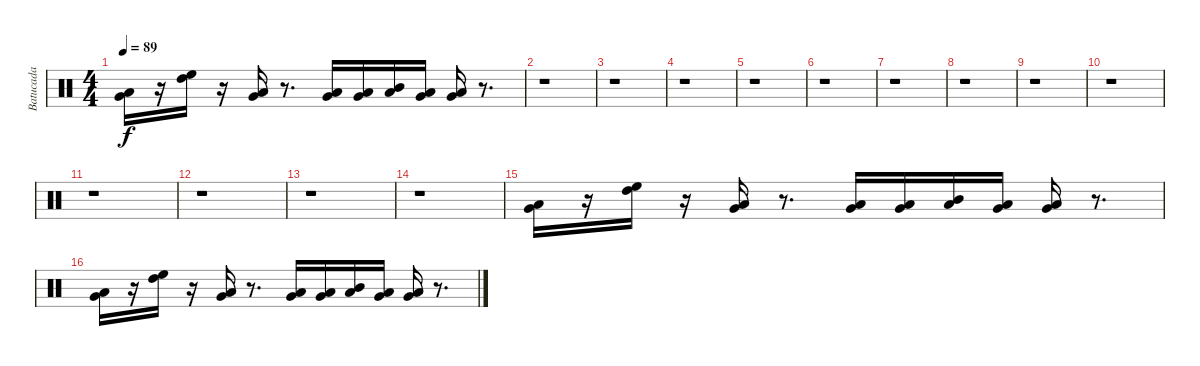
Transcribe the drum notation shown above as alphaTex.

\track ("Batucada" "Batucada") {instrument percussion}
\staff {score}
\articulation defaults
\ts (4 4)
\tempo 89
\clef neutral
\ks c
("Very Low Tom (hit)" "Low Floor Tom (hit)").16{dy f} r.16 ("High Floor Tom (hit)" "High Tom (hit)").16 r.16 ("Very Low Tom (hit)" "Low Floor Tom (hit)").16 r.8{d} ("Very Low Tom (hit)" "Low Floor Tom (hit)").16 ("Very Low Tom (hit)" "Low Floor Tom (hit)").16 ("Mid Tom (hit)" "Low Floor Tom (hit)").16 ("Very Low Tom (hit)" "Low Floor Tom (hit)").16 ("Very Low Tom (hit)" "Low Floor Tom (hit)").16 r.8{d} |
r.1 |
r.1 |
r.1 |
r.1 |
r.1 |
r.1 |
r.1 |
r.1 |
r.1 |
r.1 |
r.1 |
r.1 |
r.1 |
("Very Low Tom (hit)" "Low Floor Tom (hit)").16 r.16 ("High Floor Tom (hit)" "High Tom (hit)").16 r.16 ("Very Low Tom (hit)" "Low Floor Tom (hit)").16 r.8{d} ("Very Low Tom (hit)" "Low Floor Tom (hit)").16 ("Very Low Tom (hit)" "Low Floor Tom (hit)").16 ("Mid Tom (hit)" "Low Floor Tom (hit)").16 ("Very Low Tom (hit)" "Low Floor Tom (hit)").16 ("Very Low Tom (hit)" "Low Floor Tom (hit)").16 r.8{d} |
("Very Low Tom (hit)" "Low Floor Tom (hit)").16 r.16 ("High Floor Tom (hit)" "High Tom (hit)").16 r.16 ("Very Low Tom (hit)" "Low Floor Tom (hit)").16 r.8{d} ("Very Low Tom (hit)" "Low Floor Tom (hit)").16 ("Very Low Tom (hit)" "Low Floor Tom (hit)").16 ("Mid Tom (hit)" "Low Floor Tom (hit)").16 ("Very Low Tom (hit)" "Low Floor Tom (hit)").16 ("Very Low Tom (hit)" "Low Floor Tom (hit)").16 r.8{d}
